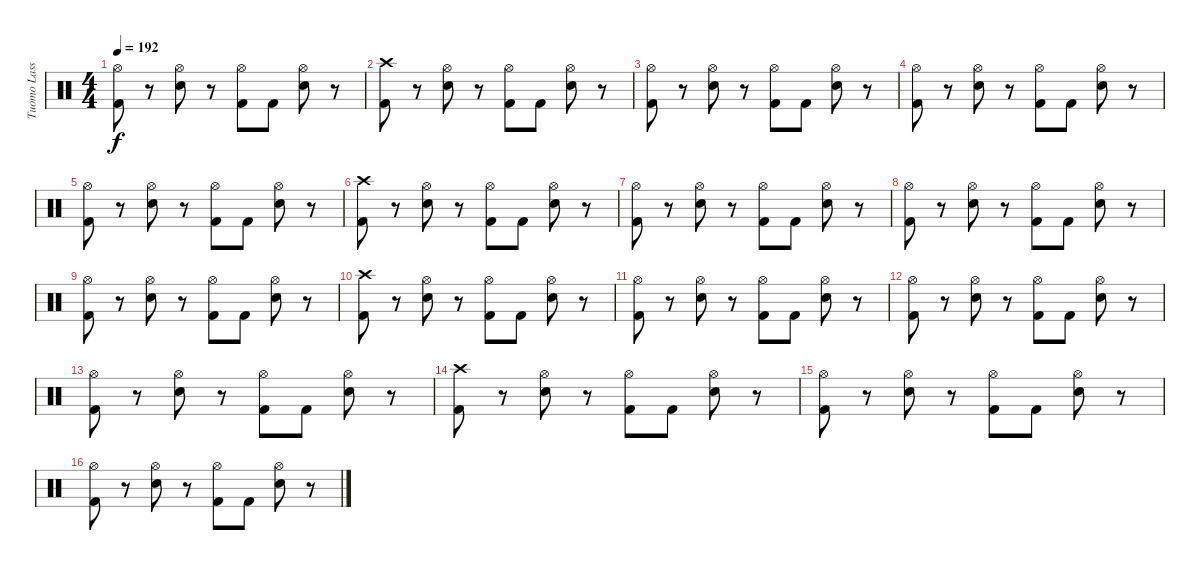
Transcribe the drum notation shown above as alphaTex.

\track ("Tuomo Lassilla" "Tuomo Lass") {instrument percussion}
\staff {score}
\articulation defaults
\ts (4 4)
\tempo 192
\clef neutral
\ks c
("Hi-Hat (open)" "Kick (hit) 2").8{dy f} r.8 ("Hi-Hat (open)" "Electric Snare (hit)").8 r.8 ("Hi-Hat (open)" "Kick (hit) 2").8 "Kick (hit) 2".8 ("Hi-Hat (open)" "Electric Snare (hit)").8 r.8 |
("Crash high (hit)" "Kick (hit) 2").8 r.8 ("Hi-Hat (open)" "Electric Snare (hit)").8 r.8 ("Hi-Hat (open)" "Kick (hit) 2").8 "Kick (hit) 2".8 ("Hi-Hat (open)" "Electric Snare (hit)").8 r.8 |
("Hi-Hat (open)" "Kick (hit) 2").8 r.8 ("Hi-Hat (open)" "Electric Snare (hit)").8 r.8 ("Hi-Hat (open)" "Kick (hit) 2").8 "Kick (hit) 2".8 ("Hi-Hat (open)" "Electric Snare (hit)").8 r.8 |
("Hi-Hat (open)" "Kick (hit) 2").8 r.8 ("Hi-Hat (open)" "Electric Snare (hit)").8 r.8 ("Hi-Hat (open)" "Kick (hit) 2").8 "Kick (hit) 2".8 ("Hi-Hat (open)" "Electric Snare (hit)").8 r.8 |
("Hi-Hat (open)" "Kick (hit) 2").8 r.8 ("Hi-Hat (open)" "Electric Snare (hit)").8 r.8 ("Hi-Hat (open)" "Kick (hit) 2").8 "Kick (hit) 2".8 ("Hi-Hat (open)" "Electric Snare (hit)").8 r.8 |
("Crash high (hit)" "Kick (hit) 2").8 r.8 ("Hi-Hat (open)" "Electric Snare (hit)").8 r.8 ("Hi-Hat (open)" "Kick (hit) 2").8 "Kick (hit) 2".8 ("Hi-Hat (open)" "Electric Snare (hit)").8 r.8 |
("Hi-Hat (open)" "Kick (hit) 2").8 r.8 ("Hi-Hat (open)" "Electric Snare (hit)").8 r.8 ("Hi-Hat (open)" "Kick (hit) 2").8 "Kick (hit) 2".8 ("Hi-Hat (open)" "Electric Snare (hit)").8 r.8 |
("Hi-Hat (open)" "Kick (hit) 2").8 r.8 ("Hi-Hat (open)" "Electric Snare (hit)").8 r.8 ("Hi-Hat (open)" "Kick (hit) 2").8 "Kick (hit) 2".8 ("Hi-Hat (open)" "Electric Snare (hit)").8 r.8 |
("Hi-Hat (open)" "Kick (hit) 2").8 r.8 ("Hi-Hat (open)" "Electric Snare (hit)").8 r.8 ("Hi-Hat (open)" "Kick (hit) 2").8 "Kick (hit) 2".8 ("Hi-Hat (open)" "Electric Snare (hit)").8 r.8 |
("Crash high (hit)" "Kick (hit) 2").8 r.8 ("Hi-Hat (open)" "Electric Snare (hit)").8 r.8 ("Hi-Hat (open)" "Kick (hit) 2").8 "Kick (hit) 2".8 ("Hi-Hat (open)" "Electric Snare (hit)").8 r.8 |
("Hi-Hat (open)" "Kick (hit) 2").8 r.8 ("Hi-Hat (open)" "Electric Snare (hit)").8 r.8 ("Hi-Hat (open)" "Kick (hit) 2").8 "Kick (hit) 2".8 ("Hi-Hat (open)" "Electric Snare (hit)").8 r.8 |
("Hi-Hat (open)" "Kick (hit) 2").8 r.8 ("Hi-Hat (open)" "Electric Snare (hit)").8 r.8 ("Hi-Hat (open)" "Kick (hit) 2").8 "Kick (hit) 2".8 ("Hi-Hat (open)" "Electric Snare (hit)").8 r.8 |
("Hi-Hat (open)" "Kick (hit) 2").8 r.8 ("Hi-Hat (open)" "Electric Snare (hit)").8 r.8 ("Hi-Hat (open)" "Kick (hit) 2").8 "Kick (hit) 2".8 ("Hi-Hat (open)" "Electric Snare (hit)").8 r.8 |
("Crash high (hit)" "Kick (hit) 2").8 r.8 ("Hi-Hat (open)" "Electric Snare (hit)").8 r.8 ("Hi-Hat (open)" "Kick (hit) 2").8 "Kick (hit) 2".8 ("Hi-Hat (open)" "Electric Snare (hit)").8 r.8 |
("Hi-Hat (open)" "Kick (hit) 2").8 r.8 ("Hi-Hat (open)" "Electric Snare (hit)").8 r.8 ("Hi-Hat (open)" "Kick (hit) 2").8 "Kick (hit) 2".8 ("Hi-Hat (open)" "Electric Snare (hit)").8 r.8 |
("Hi-Hat (open)" "Kick (hit) 2").8 r.8 ("Hi-Hat (open)" "Electric Snare (hit)").8 r.8 ("Hi-Hat (open)" "Kick (hit) 2").8 "Kick (hit) 2".8 ("Hi-Hat (open)" "Electric Snare (hit)").8 r.8
